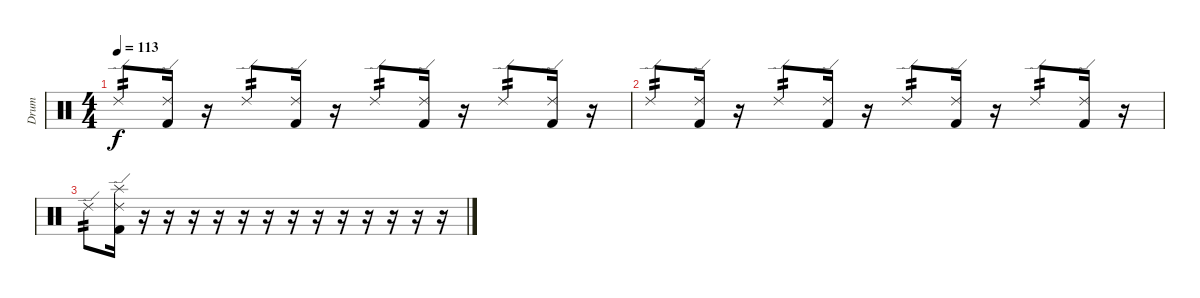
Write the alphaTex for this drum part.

\track ("Drum" "Drum") {instrument percussion}
\staff {score}
\articulation defaults
\ts (4 4)
\tempo 113
\clef neutral
\ks c "Ride (edge) 2".8{tp 2 dy f}
("Ride (edge) 2" "Kick (hit) 2").16 r.16 "Ride (edge) 2".8{tp 2} ("Ride (edge) 2" "Kick (hit) 2").16 r.16 "Ride (edge) 2".8{tp 2} ("Ride (edge) 2" "Kick (hit) 2").16 r.16 "Ride (edge) 2".8{tp 2} ("Ride (edge) 2" "Kick (hit) 2").16 r.16 |
"Ride (edge) 2".8{tp 2} ("Ride (edge) 2" "Kick (hit) 2").16 r.16 "Ride (edge) 2".8{tp 2} ("Ride (edge) 2" "Kick (hit) 2").16 r.16 "Ride (edge) 2".8{tp 2} ("Ride (edge) 2" "Kick (hit) 2").16 r.16 "Ride (edge) 2".8{tp 2} ("Ride (edge) 2" "Kick (hit) 2").16 r.16 |
"Ride (edge) 2".8{tp 2} ("Ride (edge) 2" "Splash (hit)" "Kick (hit) 2").16 r.16 r.16 r.16 r.16 r.16 r.16 r.16 r.16 r.16 r.16 r.16 r.16 r.16
